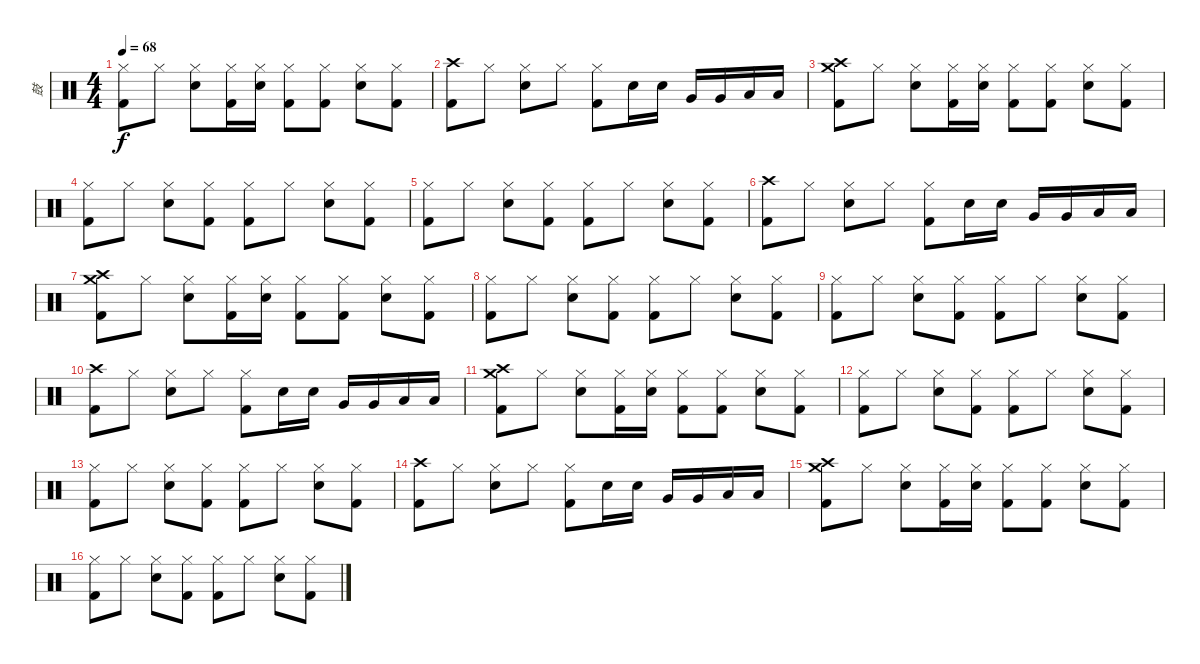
\track ("鼓" "鼓") {instrument percussion}
\staff {score}
\articulation defaults
\ts (4 4)
\tempo 68
\clef neutral
\ks c
("Kick (hit) 2" "Hi-Hat (closed)").8{dy f} "Hi-Hat (closed)".8 ("Snare (hit) 2" "Hi-Hat (closed)").8 ("Kick (hit) 2" "Hi-Hat (closed)").16 ("Snare (hit) 2" "Hi-Hat (closed)").16 ("Kick (hit) 2" "Hi-Hat (closed)").8 ("Kick (hit) 2" "Hi-Hat (closed)").8 ("Snare (hit) 2" "Hi-Hat (closed)").8 ("Kick (hit) 2" "Hi-Hat (closed)").8 |
("Kick (hit) 2" "Crash high (hit)").8 "Hi-Hat (closed)".8 ("Snare (hit) 2" "Hi-Hat (closed)").8 "Hi-Hat (closed)".8 ("Kick (hit) 2" "Hi-Hat (closed)").8 "Electric Snare (hit)".16 "Electric Snare (hit)".16 "Very Low Tom (hit)".16 "Very Low Tom (hit)".16 "Low Tom (hit)".16 "Low Tom (hit)".16 |
("Kick (hit) 2" "Crash high (hit)" "Crash medium (hit)").8 "Hi-Hat (closed)".8 ("Snare (hit) 2" "Hi-Hat (closed)").8 ("Kick (hit) 2" "Hi-Hat (closed)").16 ("Snare (hit) 2" "Hi-Hat (closed)").16 ("Kick (hit) 2" "Hi-Hat (closed)").8 ("Kick (hit) 2" "Hi-Hat (closed)").8 ("Snare (hit) 2" "Hi-Hat (closed)").8 ("Kick (hit) 2" "Hi-Hat (closed)").8 |
("Kick (hit) 2" "Hi-Hat (closed)").8 "Hi-Hat (closed)".8 ("Snare (hit) 2" "Hi-Hat (closed)").8 ("Kick (hit) 2" "Hi-Hat (closed)").8 ("Kick (hit) 2" "Hi-Hat (closed)").8 "Hi-Hat (closed)".8 ("Snare (hit) 2" "Hi-Hat (closed)").8 ("Kick (hit) 2" "Hi-Hat (closed)").8 |
("Kick (hit) 2" "Hi-Hat (closed)").8 "Hi-Hat (closed)".8 ("Snare (hit) 2" "Hi-Hat (closed)").8 ("Kick (hit) 2" "Hi-Hat (closed)").8 ("Kick (hit) 2" "Hi-Hat (closed)").8 "Hi-Hat (closed)".8 ("Snare (hit) 2" "Hi-Hat (closed)").8 ("Kick (hit) 2" "Hi-Hat (closed)").8 |
("Kick (hit) 2" "Crash high (hit)").8 "Hi-Hat (closed)".8 ("Snare (hit) 2" "Hi-Hat (closed)").8 "Hi-Hat (closed)".8 ("Kick (hit) 2" "Hi-Hat (closed)").8 "Electric Snare (hit)".16 "Electric Snare (hit)".16 "Very Low Tom (hit)".16 "Very Low Tom (hit)".16 "Low Tom (hit)".16 "Low Tom (hit)".16 |
("Kick (hit) 2" "Crash high (hit)" "Crash medium (hit)").8 "Hi-Hat (closed)".8 ("Snare (hit) 2" "Hi-Hat (closed)").8 ("Kick (hit) 2" "Hi-Hat (closed)").16 ("Snare (hit) 2" "Hi-Hat (closed)").16 ("Kick (hit) 2" "Hi-Hat (closed)").8 ("Kick (hit) 2" "Hi-Hat (closed)").8 ("Snare (hit) 2" "Hi-Hat (closed)").8 ("Kick (hit) 2" "Hi-Hat (closed)").8 |
("Kick (hit) 2" "Hi-Hat (closed)").8 "Hi-Hat (closed)".8 ("Snare (hit) 2" "Hi-Hat (closed)").8 ("Kick (hit) 2" "Hi-Hat (closed)").8 ("Kick (hit) 2" "Hi-Hat (closed)").8 "Hi-Hat (closed)".8 ("Snare (hit) 2" "Hi-Hat (closed)").8 ("Kick (hit) 2" "Hi-Hat (closed)").8 |
("Kick (hit) 2" "Hi-Hat (closed)").8 "Hi-Hat (closed)".8 ("Snare (hit) 2" "Hi-Hat (closed)").8 ("Kick (hit) 2" "Hi-Hat (closed)").8 ("Kick (hit) 2" "Hi-Hat (closed)").8 "Hi-Hat (closed)".8 ("Snare (hit) 2" "Hi-Hat (closed)").8 ("Kick (hit) 2" "Hi-Hat (closed)").8 |
("Kick (hit) 2" "Crash high (hit)").8 "Hi-Hat (closed)".8 ("Snare (hit) 2" "Hi-Hat (closed)").8 "Hi-Hat (closed)".8 ("Kick (hit) 2" "Hi-Hat (closed)").8 "Electric Snare (hit)".16 "Electric Snare (hit)".16 "Very Low Tom (hit)".16 "Very Low Tom (hit)".16 "Low Tom (hit)".16 "Low Tom (hit)".16 |
("Kick (hit) 2" "Crash high (hit)" "Crash medium (hit)").8 "Hi-Hat (closed)".8 ("Snare (hit) 2" "Hi-Hat (closed)").8 ("Kick (hit) 2" "Hi-Hat (closed)").16 ("Snare (hit) 2" "Hi-Hat (closed)").16 ("Kick (hit) 2" "Hi-Hat (closed)").8 ("Kick (hit) 2" "Hi-Hat (closed)").8 ("Snare (hit) 2" "Hi-Hat (closed)").8 ("Kick (hit) 2" "Hi-Hat (closed)").8 |
("Kick (hit) 2" "Hi-Hat (closed)").8 "Hi-Hat (closed)".8 ("Snare (hit) 2" "Hi-Hat (closed)").8 ("Kick (hit) 2" "Hi-Hat (closed)").8 ("Kick (hit) 2" "Hi-Hat (closed)").8 "Hi-Hat (closed)".8 ("Snare (hit) 2" "Hi-Hat (closed)").8 ("Kick (hit) 2" "Hi-Hat (closed)").8 |
("Kick (hit) 2" "Hi-Hat (closed)").8 "Hi-Hat (closed)".8 ("Snare (hit) 2" "Hi-Hat (closed)").8 ("Kick (hit) 2" "Hi-Hat (closed)").8 ("Kick (hit) 2" "Hi-Hat (closed)").8 "Hi-Hat (closed)".8 ("Snare (hit) 2" "Hi-Hat (closed)").8 ("Kick (hit) 2" "Hi-Hat (closed)").8 |
("Kick (hit) 2" "Crash high (hit)").8 "Hi-Hat (closed)".8 ("Snare (hit) 2" "Hi-Hat (closed)").8 "Hi-Hat (closed)".8 ("Kick (hit) 2" "Hi-Hat (closed)").8 "Electric Snare (hit)".16 "Electric Snare (hit)".16 "Very Low Tom (hit)".16 "Very Low Tom (hit)".16 "Low Tom (hit)".16 "Low Tom (hit)".16 |
("Kick (hit) 2" "Crash high (hit)" "Crash medium (hit)").8 "Hi-Hat (closed)".8 ("Snare (hit) 2" "Hi-Hat (closed)").8 ("Kick (hit) 2" "Hi-Hat (closed)").16 ("Snare (hit) 2" "Hi-Hat (closed)").16 ("Kick (hit) 2" "Hi-Hat (closed)").8 ("Kick (hit) 2" "Hi-Hat (closed)").8 ("Snare (hit) 2" "Hi-Hat (closed)").8 ("Kick (hit) 2" "Hi-Hat (closed)").8 |
("Kick (hit) 2" "Hi-Hat (closed)").8 "Hi-Hat (closed)".8 ("Snare (hit) 2" "Hi-Hat (closed)").8 ("Kick (hit) 2" "Hi-Hat (closed)").8 ("Kick (hit) 2" "Hi-Hat (closed)").8 "Hi-Hat (closed)".8 ("Snare (hit) 2" "Hi-Hat (closed)").8 ("Kick (hit) 2" "Hi-Hat (closed)").8
